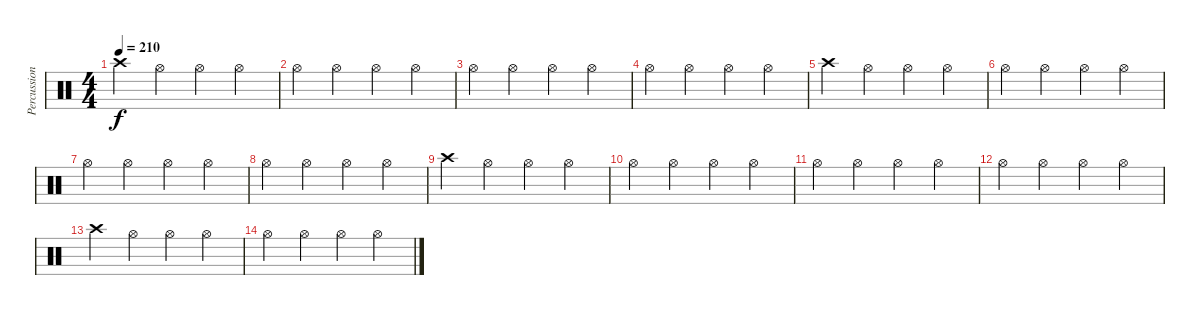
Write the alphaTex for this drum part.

\track ("Percussion" "Percussion") {instrument percussion}
\staff {score}
\articulation defaults
\ts (4 4)
\tempo 210
\clef neutral
\ks c "Crash high (hit)".4{dy f} "Hi-Hat (open)".4 "Hi-Hat (open)".4 "Hi-Hat (open)".4
|
"Hi-Hat (open)".4 "Hi-Hat (open)".4 "Hi-Hat (open)".4 "Hi-Hat (open)".4 |
"Hi-Hat (open)".4 "Hi-Hat (open)".4 "Hi-Hat (open)".4 "Hi-Hat (open)".4 |
"Hi-Hat (open)".4 "Hi-Hat (open)".4 "Hi-Hat (open)".4 "Hi-Hat (open)".4 |
"Crash high (hit)".4 "Hi-Hat (open)".4 "Hi-Hat (open)".4 "Hi-Hat (open)".4 |
"Hi-Hat (open)".4 "Hi-Hat (open)".4 "Hi-Hat (open)".4 "Hi-Hat (open)".4 |
"Hi-Hat (open)".4 "Hi-Hat (open)".4 "Hi-Hat (open)".4 "Hi-Hat (open)".4 |
"Hi-Hat (open)".4 "Hi-Hat (open)".4 "Hi-Hat (open)".4 "Hi-Hat (open)".4 |
"Crash high (hit)".4 "Hi-Hat (open)".4 "Hi-Hat (open)".4 "Hi-Hat (open)".4 |
"Hi-Hat (open)".4 "Hi-Hat (open)".4 "Hi-Hat (open)".4 "Hi-Hat (open)".4 |
"Hi-Hat (open)".4 "Hi-Hat (open)".4 "Hi-Hat (open)".4 "Hi-Hat (open)".4 |
"Hi-Hat (open)".4 "Hi-Hat (open)".4 "Hi-Hat (open)".4 "Hi-Hat (open)".4 |
"Crash high (hit)".4 "Hi-Hat (open)".4 "Hi-Hat (open)".4 "Hi-Hat (open)".4 |
"Hi-Hat (open)".4 "Hi-Hat (open)".4 "Hi-Hat (open)".4 "Hi-Hat (open)".4
